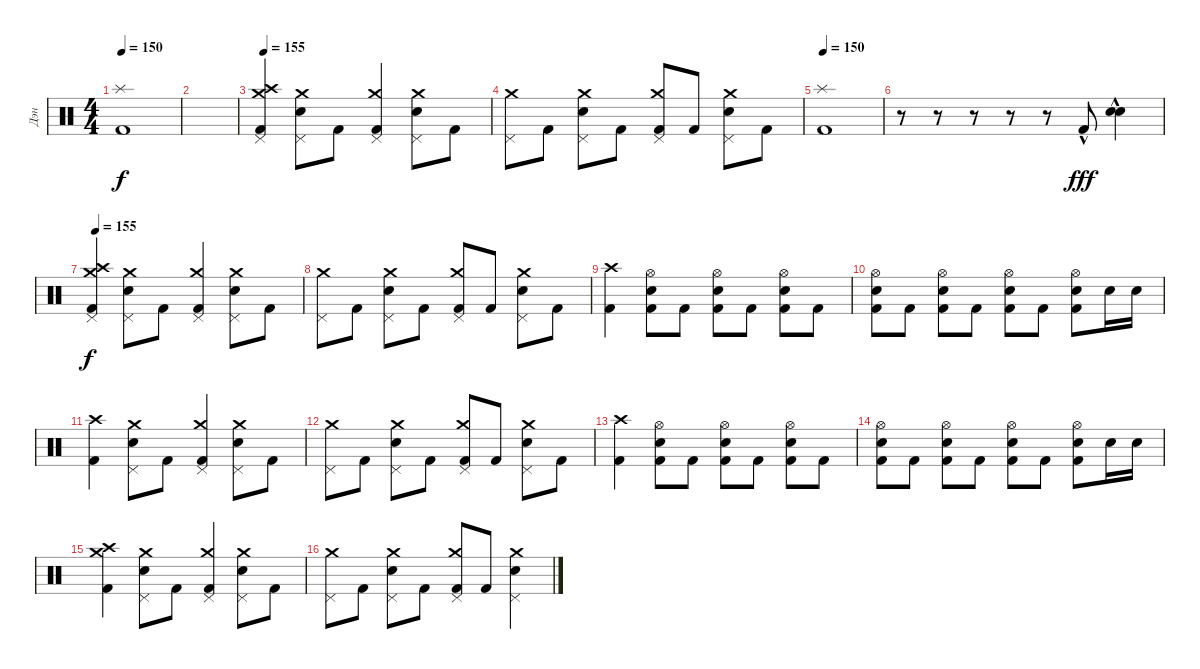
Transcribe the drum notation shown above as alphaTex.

\track ("Дэн" "Дэн") {instrument percussion}
\staff {score}
\articulation defaults
\ts (4 4)
\tempo 150
\clef neutral
\ks c
("Splash (hit)" "Kick (hit) 2").1{dy f} |
|
\tempo 155
("Crash high (hit)" "Crash medium (hit)" "Pedal Hi-Hat (hit)" "Kick (hit) 2").4 ("Crash medium (hit)" "Pedal Hi-Hat (hit)" "Snare (hit) 2").8 "Kick (hit) 2".8 ("Crash medium (hit)" "Pedal Hi-Hat (hit)" "Kick (hit) 2").4 ("Crash medium (hit)" "Pedal Hi-Hat (hit)" "Snare (hit) 2").8 "Kick (hit) 2".8 |
("Crash medium (hit)" "Pedal Hi-Hat (hit)").8 "Kick (hit) 2".8 ("Crash medium (hit)" "Pedal Hi-Hat (hit)" "Snare (hit) 2").8 "Kick (hit) 2".8 ("Crash medium (hit)" "Pedal Hi-Hat (hit)" "Kick (hit) 2").8 "Kick (hit) 2".8 ("Crash medium (hit)" "Pedal Hi-Hat (hit)" "Snare (hit) 2").8 "Kick (hit) 2".8 |
\tempo 150
("Splash (hit)" "Kick (hit) 2").1 |
r.8 r.8 r.8 r.8 r.8 "Kick (hit) 2"{hac}.8{dy fff} ("Snare (hit) 2"{hac} "Snare (hit) 2"{hac}).4 |
\tempo 155
("Crash high (hit)" "Crash medium (hit)" "Pedal Hi-Hat (hit)" "Kick (hit) 2").4{dy f} ("Crash medium (hit)" "Pedal Hi-Hat (hit)" "Snare (hit) 2").8 "Kick (hit) 2".8 ("Crash medium (hit)" "Pedal Hi-Hat (hit)" "Kick (hit) 2").4 ("Crash medium (hit)" "Pedal Hi-Hat (hit)" "Snare (hit) 2").8 "Kick (hit) 2".8 |
("Crash medium (hit)" "Pedal Hi-Hat (hit)").8 "Kick (hit) 2".8 ("Crash medium (hit)" "Pedal Hi-Hat (hit)" "Snare (hit) 2").8 "Kick (hit) 2".8 ("Crash medium (hit)" "Pedal Hi-Hat (hit)" "Kick (hit) 2").8 "Kick (hit) 2".8 ("Crash medium (hit)" "Pedal Hi-Hat (hit)" "Snare (hit) 2").8 "Kick (hit) 2".8 |
("Crash high (hit)" "Kick (hit) 2").4 ("Hi-Hat (open)" "Kick (hit) 2" "Snare (hit) 2").8 "Kick (hit) 2".8 ("Hi-Hat (open)" "Kick (hit) 2" "Snare (hit) 2").8 "Kick (hit) 2".8 ("Hi-Hat (open)" "Kick (hit) 2" "Snare (hit) 2").8 "Kick (hit) 2".8 |
("Hi-Hat (open)" "Kick (hit) 2" "Snare (hit) 2").8 "Kick (hit) 2".8 ("Hi-Hat (open)" "Kick (hit) 2" "Snare (hit) 2").8 "Kick (hit) 2".8 ("Hi-Hat (open)" "Kick (hit) 2" "Snare (hit) 2").8 "Kick (hit) 2".8 ("Hi-Hat (open)" "Kick (hit) 2" "Snare (hit) 2").8 "Snare (hit) 2".16 "Snare (hit) 2".16 |
("Crash high (hit)" "Kick (hit) 2").4 ("Crash medium (hit)" "Pedal Hi-Hat (hit)" "Snare (hit) 2").8 "Kick (hit) 2".8 ("Crash medium (hit)" "Pedal Hi-Hat (hit)" "Kick (hit) 2").4 ("Crash medium (hit)" "Pedal Hi-Hat (hit)" "Snare (hit) 2").8 "Kick (hit) 2".8 |
("Crash medium (hit)" "Pedal Hi-Hat (hit)").8 "Kick (hit) 2".8 ("Crash medium (hit)" "Pedal Hi-Hat (hit)" "Snare (hit) 2").8 "Kick (hit) 2".8 ("Crash medium (hit)" "Pedal Hi-Hat (hit)" "Kick (hit) 2").8 "Kick (hit) 2".8 ("Crash medium (hit)" "Pedal Hi-Hat (hit)" "Snare (hit) 2").8 "Kick (hit) 2".8 |
("Crash high (hit)" "Kick (hit) 2").4 ("Hi-Hat (open)" "Kick (hit) 2" "Snare (hit) 2").8 "Kick (hit) 2".8 ("Hi-Hat (open)" "Kick (hit) 2" "Snare (hit) 2").8 "Kick (hit) 2".8 ("Hi-Hat (open)" "Kick (hit) 2" "Snare (hit) 2").8 "Kick (hit) 2".8 |
("Hi-Hat (open)" "Kick (hit) 2" "Snare (hit) 2").8 "Kick (hit) 2".8 ("Hi-Hat (open)" "Kick (hit) 2" "Snare (hit) 2").8 "Kick (hit) 2".8 ("Hi-Hat (open)" "Kick (hit) 2" "Snare (hit) 2").8 "Kick (hit) 2".8 ("Hi-Hat (open)" "Kick (hit) 2" "Snare (hit) 2").8 "Snare (hit) 2".16 "Snare (hit) 2".16 |
("Crash high (hit)" "Crash medium (hit)" "Kick (hit) 2").4 ("Crash medium (hit)" "Pedal Hi-Hat (hit)" "Snare (hit) 2").8 "Kick (hit) 2".8 ("Crash medium (hit)" "Pedal Hi-Hat (hit)" "Kick (hit) 2").4 ("Crash medium (hit)" "Pedal Hi-Hat (hit)" "Snare (hit) 2").8 "Kick (hit) 2".8 |
("Crash medium (hit)" "Pedal Hi-Hat (hit)").8 "Kick (hit) 2".8 ("Crash medium (hit)" "Pedal Hi-Hat (hit)" "Snare (hit) 2").8 "Kick (hit) 2".8 ("Crash medium (hit)" "Pedal Hi-Hat (hit)" "Kick (hit) 2").8 "Kick (hit) 2".8 ("Crash medium (hit)" "Pedal Hi-Hat (hit)" "Snare (hit) 2").4
